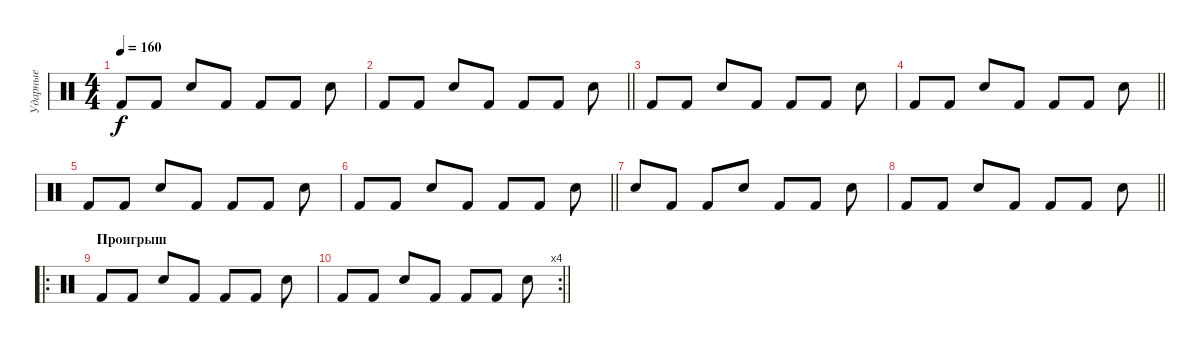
\track ("Ударные" "Ударные") {instrument percussion}
\staff {score}
\articulation defaults
\ts (4 4)
\tempo 160
\clef neutral
\ks c "Kick (hit) 2".8{dy f} "Kick (hit) 2".8 "Snare (hit) 2".8 "Kick (hit) 2".8 "Kick (hit) 2".8 "Kick (hit) 2".8 "Snare (hit) 2".8
|
\barLineRight lightlight "Kick (hit) 2".8 "Kick (hit) 2".8 "Snare (hit) 2".8 "Kick (hit) 2".8 "Kick (hit) 2".8 "Kick (hit) 2".8 "Snare (hit) 2".8
|
"Kick (hit) 2".8 "Kick (hit) 2".8 "Snare (hit) 2".8 "Kick (hit) 2".8 "Kick (hit) 2".8 "Kick (hit) 2".8 "Snare (hit) 2".8 |
\barLineRight lightlight "Kick (hit) 2".8 "Kick (hit) 2".8 "Snare (hit) 2".8 "Kick (hit) 2".8 "Kick (hit) 2".8 "Kick (hit) 2".8 "Snare (hit) 2".8
|
"Kick (hit) 2".8 "Kick (hit) 2".8 "Snare (hit) 2".8 "Kick (hit) 2".8 "Kick (hit) 2".8 "Kick (hit) 2".8 "Snare (hit) 2".8 |
\barLineRight lightlight "Kick (hit) 2".8 "Kick (hit) 2".8 "Snare (hit) 2".8 "Kick (hit) 2".8 "Kick (hit) 2".8 "Kick (hit) 2".8 "Snare (hit) 2".8
|
"Snare (hit) 2".8 "Kick (hit) 2".8 "Kick (hit) 2".8 "Snare (hit) 2".8 "Kick (hit) 2".8 "Kick (hit) 2".8 "Snare (hit) 2".8 |
\barLineRight lightlight "Kick (hit) 2".8 "Kick (hit) 2".8 "Snare (hit) 2".8 "Kick (hit) 2".8 "Kick (hit) 2".8 "Kick (hit) 2".8 "Snare (hit) 2".8
|
\ro
\section ("" "Проигрыш")
"Kick (hit) 2".8 "Kick (hit) 2".8 "Snare (hit) 2".8 "Kick (hit) 2".8 "Kick (hit) 2".8 "Kick (hit) 2".8 "Snare (hit) 2".8 |
\rc 4
\barLineRight lightlight "Kick (hit) 2".8 "Kick (hit) 2".8 "Snare (hit) 2".8 "Kick (hit) 2".8 "Kick (hit) 2".8 "Kick (hit) 2".8 "Snare (hit) 2".8
